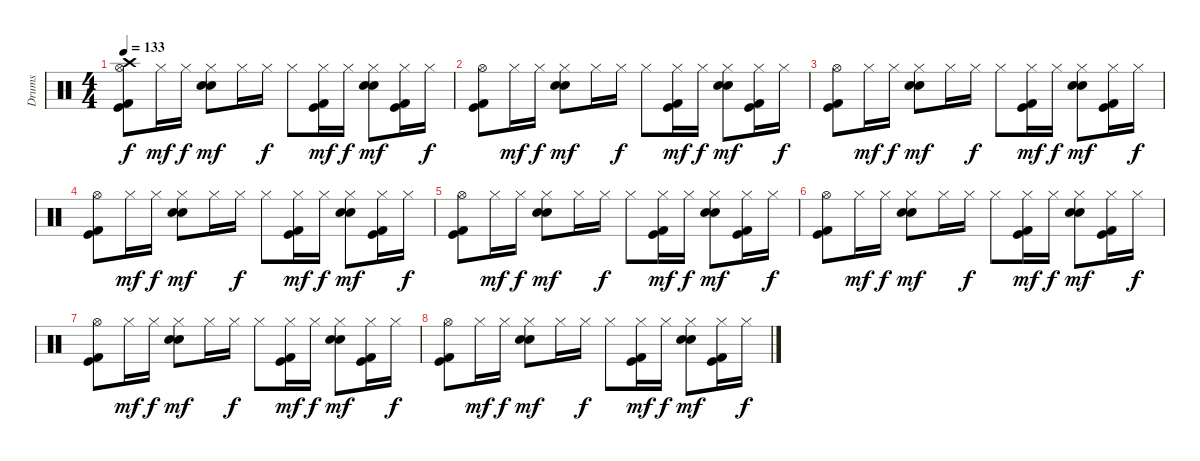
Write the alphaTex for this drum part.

\track ("Drums" "Drums") {instrument percussion}
\staff {score}
\articulation defaults
\ts (4 4)
\tempo 133
\clef neutral
\ks c
("Crash high (hit)" "Hi-Hat (open)" "Kick (hit)" "Kick (hit) 2").8{dy f} "Hi-Hat (closed)".16{dy mf} "Hi-Hat (closed)".16{dy f} ("Hi-Hat (closed)" "Snare (hit) 2" "Hand Clap (hit)").8{dy mf} "Hi-Hat (closed)".16 "Hi-Hat (closed)".16{dy f} "Hi-Hat (closed)".8 ("Hi-Hat (closed)" "Kick (hit)" "Kick (hit) 2").16{dy mf} "Hi-Hat (closed)".16{dy f} ("Hi-Hat (closed)" "Snare (hit) 2" "Hand Clap (hit)").8{dy mf} ("Hi-Hat (closed)" "Kick (hit)" "Kick (hit) 2").16 "Hi-Hat (closed)".16{dy f} |
("Hi-Hat (open)" "Kick (hit)" "Kick (hit) 2").8 "Hi-Hat (closed)".16{dy mf} "Hi-Hat (closed)".16{dy f} ("Hi-Hat (closed)" "Snare (hit) 2" "Hand Clap (hit)").8{dy mf} "Hi-Hat (closed)".16 "Hi-Hat (closed)".16{dy f} "Hi-Hat (closed)".8 ("Hi-Hat (closed)" "Kick (hit)" "Kick (hit) 2").16{dy mf} "Hi-Hat (closed)".16{dy f} ("Hi-Hat (closed)" "Snare (hit) 2" "Hand Clap (hit)").8{dy mf} ("Hi-Hat (closed)" "Kick (hit)" "Kick (hit) 2").16 "Hi-Hat (closed)".16{dy f} |
("Hi-Hat (open)" "Kick (hit)" "Kick (hit) 2").8 "Hi-Hat (closed)".16{dy mf} "Hi-Hat (closed)".16{dy f} ("Hi-Hat (closed)" "Snare (hit) 2" "Hand Clap (hit)").8{dy mf} "Hi-Hat (closed)".16 "Hi-Hat (closed)".16{dy f} "Hi-Hat (closed)".8 ("Hi-Hat (closed)" "Kick (hit)" "Kick (hit) 2").16{dy mf} "Hi-Hat (closed)".16{dy f} ("Hi-Hat (closed)" "Snare (hit) 2" "Hand Clap (hit)").8{dy mf} ("Hi-Hat (closed)" "Kick (hit)" "Kick (hit) 2").16 "Hi-Hat (closed)".16{dy f} |
("Hi-Hat (open)" "Kick (hit)" "Kick (hit) 2").8 "Hi-Hat (closed)".16{dy mf} "Hi-Hat (closed)".16{dy f} ("Hi-Hat (closed)" "Snare (hit) 2" "Hand Clap (hit)").8{dy mf} "Hi-Hat (closed)".16 "Hi-Hat (closed)".16{dy f} "Hi-Hat (closed)".8 ("Hi-Hat (closed)" "Kick (hit)" "Kick (hit) 2").16{dy mf} "Hi-Hat (closed)".16{dy f} ("Hi-Hat (closed)" "Snare (hit) 2" "Hand Clap (hit)").8{dy mf} ("Hi-Hat (closed)" "Kick (hit)" "Kick (hit) 2").16 "Hi-Hat (closed)".16{dy f} |
("Hi-Hat (open)" "Kick (hit)" "Kick (hit) 2").8 "Hi-Hat (closed)".16{dy mf} "Hi-Hat (closed)".16{dy f} ("Hi-Hat (closed)" "Snare (hit) 2" "Hand Clap (hit)").8{dy mf} "Hi-Hat (closed)".16 "Hi-Hat (closed)".16{dy f} "Hi-Hat (closed)".8 ("Hi-Hat (closed)" "Kick (hit)" "Kick (hit) 2").16{dy mf} "Hi-Hat (closed)".16{dy f} ("Hi-Hat (closed)" "Snare (hit) 2" "Hand Clap (hit)").8{dy mf} ("Hi-Hat (closed)" "Kick (hit)" "Kick (hit) 2").16 "Hi-Hat (closed)".16{dy f} |
("Hi-Hat (open)" "Kick (hit)" "Kick (hit) 2").8 "Hi-Hat (closed)".16{dy mf} "Hi-Hat (closed)".16{dy f} ("Hi-Hat (closed)" "Snare (hit) 2" "Hand Clap (hit)").8{dy mf} "Hi-Hat (closed)".16 "Hi-Hat (closed)".16{dy f} "Hi-Hat (closed)".8 ("Hi-Hat (closed)" "Kick (hit)" "Kick (hit) 2").16{dy mf} "Hi-Hat (closed)".16{dy f} ("Hi-Hat (closed)" "Snare (hit) 2" "Hand Clap (hit)").8{dy mf} ("Hi-Hat (closed)" "Kick (hit)" "Kick (hit) 2").16 "Hi-Hat (closed)".16{dy f} |
("Hi-Hat (open)" "Kick (hit)" "Kick (hit) 2").8 "Hi-Hat (closed)".16{dy mf} "Hi-Hat (closed)".16{dy f} ("Hi-Hat (closed)" "Snare (hit) 2" "Hand Clap (hit)").8{dy mf} "Hi-Hat (closed)".16 "Hi-Hat (closed)".16{dy f} "Hi-Hat (closed)".8 ("Hi-Hat (closed)" "Kick (hit)" "Kick (hit) 2").16{dy mf} "Hi-Hat (closed)".16{dy f} ("Hi-Hat (closed)" "Snare (hit) 2" "Hand Clap (hit)").8{dy mf} ("Hi-Hat (closed)" "Kick (hit)" "Kick (hit) 2").16 "Hi-Hat (closed)".16{dy f} |
("Hi-Hat (open)" "Kick (hit)" "Kick (hit) 2").8 "Hi-Hat (closed)".16{dy mf} "Hi-Hat (closed)".16{dy f} ("Hi-Hat (closed)" "Snare (hit) 2" "Hand Clap (hit)").8{dy mf} "Hi-Hat (closed)".16 "Hi-Hat (closed)".16{dy f} "Hi-Hat (closed)".8 ("Hi-Hat (closed)" "Kick (hit)" "Kick (hit) 2").16{dy mf} "Hi-Hat (closed)".16{dy f} ("Hi-Hat (closed)" "Snare (hit) 2" "Hand Clap (hit)").8{dy mf} ("Hi-Hat (closed)" "Kick (hit)" "Kick (hit) 2").16 "Hi-Hat (closed)".16{dy f}
